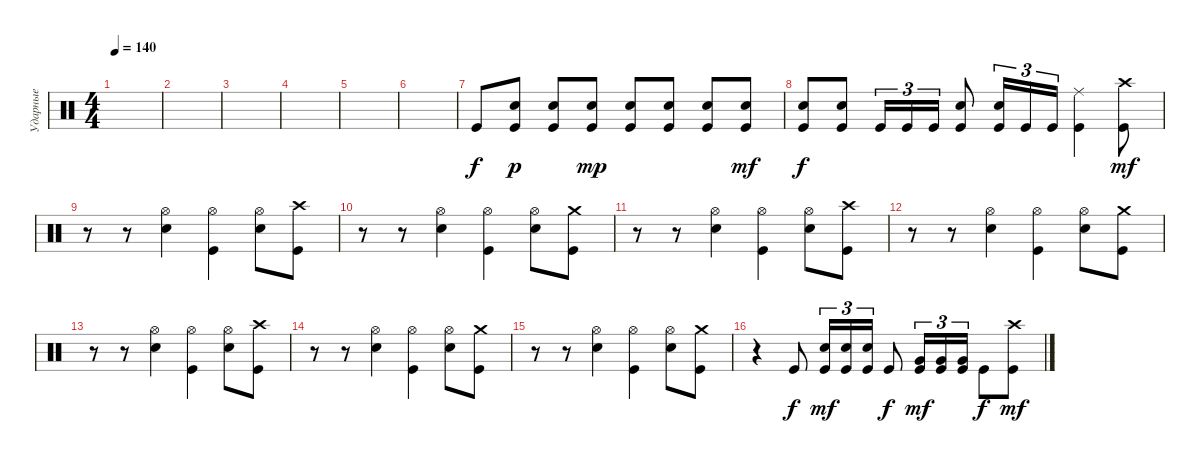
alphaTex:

\track ("Ударные" "Ударные") {instrument percussion}
\staff {score}
\articulation defaults
\ts (4 4)
\tempo 140
\clef neutral
\ks c
|
|
|
|
|
|
"Kick (hit)".8 ("Kick (hit)" "Electric Snare (hit)").8{dy p} ("Kick (hit)" "Electric Snare (hit)").8 ("Kick (hit)" "Electric Snare (hit)").8{dy mp} ("Kick (hit)" "Electric Snare (hit)").8 ("Kick (hit)" "Electric Snare (hit)").8 ("Kick (hit)" "Electric Snare (hit)").8 ("Kick (hit)" "Electric Snare (hit)").8{dy mf} |
("Kick (hit)" "Electric Snare (hit)").8{dy f} ("Kick (hit)" "Electric Snare (hit)").8 "Kick (hit)".16{tu (3 2)} "Kick (hit)".16{tu (3 2)} "Kick (hit)".16{tu (3 2)} ("Kick (hit)" "Electric Snare (hit)").8 ("Kick (hit)" "Electric Snare (hit)").16{tu (3 2)} "Kick (hit)".16{tu (3 2)} "Kick (hit)".16{tu (3 2)} ("Kick (hit)" "Ride (middle)").4 ("Kick (hit)" "Crash high (hit)").8{dy mf} |
r.8 r.8 ("Electric Snare (hit)" "Hi-Hat (open)").4 ("Kick (hit)" "Hi-Hat (open)").4 ("Electric Snare (hit)" "Hi-Hat (open)").8 ("Kick (hit)" "Crash high (hit)").8 |
r.8 r.8 ("Electric Snare (hit)" "Hi-Hat (open)").4 ("Kick (hit)" "Hi-Hat (open)").4 ("Electric Snare (hit)" "Hi-Hat (open)").8 ("Kick (hit)" "Crash medium (hit)").8 |
r.8 r.8 ("Electric Snare (hit)" "Hi-Hat (open)").4 ("Kick (hit)" "Hi-Hat (open)").4 ("Electric Snare (hit)" "Hi-Hat (open)").8 ("Kick (hit)" "Crash high (hit)").8 |
r.8 r.8 ("Electric Snare (hit)" "Hi-Hat (open)").4 ("Kick (hit)" "Hi-Hat (open)").4 ("Electric Snare (hit)" "Hi-Hat (open)").8 ("Kick (hit)" "Crash medium (hit)").8 |
r.8 r.8 ("Electric Snare (hit)" "Hi-Hat (open)").4 ("Kick (hit)" "Hi-Hat (open)").4 ("Electric Snare (hit)" "Hi-Hat (open)").8 ("Kick (hit)" "Crash high (hit)").8 |
r.8 r.8 ("Electric Snare (hit)" "Hi-Hat (open)").4 ("Kick (hit)" "Hi-Hat (open)").4 ("Electric Snare (hit)" "Hi-Hat (open)").8 ("Kick (hit)" "Crash medium (hit)").8 |
r.8 r.8 ("Electric Snare (hit)" "Hi-Hat (open)").4 ("Kick (hit)" "Hi-Hat (open)").4 ("Electric Snare (hit)" "Hi-Hat (open)").8 ("Kick (hit)" "Crash medium (hit)").8 |
r.4 "Kick (hit)".8{dy f} ("Kick (hit)" "Electric Snare (hit)").16{tu (3 2) dy mf} ("Kick (hit)" "Electric Snare (hit)").16{tu (3 2)} ("Kick (hit)" "Electric Snare (hit)").16{tu (3 2)} "Kick (hit)".8{dy f} ("Kick (hit)" "Very Low Tom (hit)").16{tu (3 2) dy mf} ("Kick (hit)" "Very Low Tom (hit)").16{tu (3 2)} ("Kick (hit)" "Very Low Tom (hit)").16{tu (3 2)} "Kick (hit)".8{dy f} ("Kick (hit)" "Crash high (hit)").8{dy mf}
